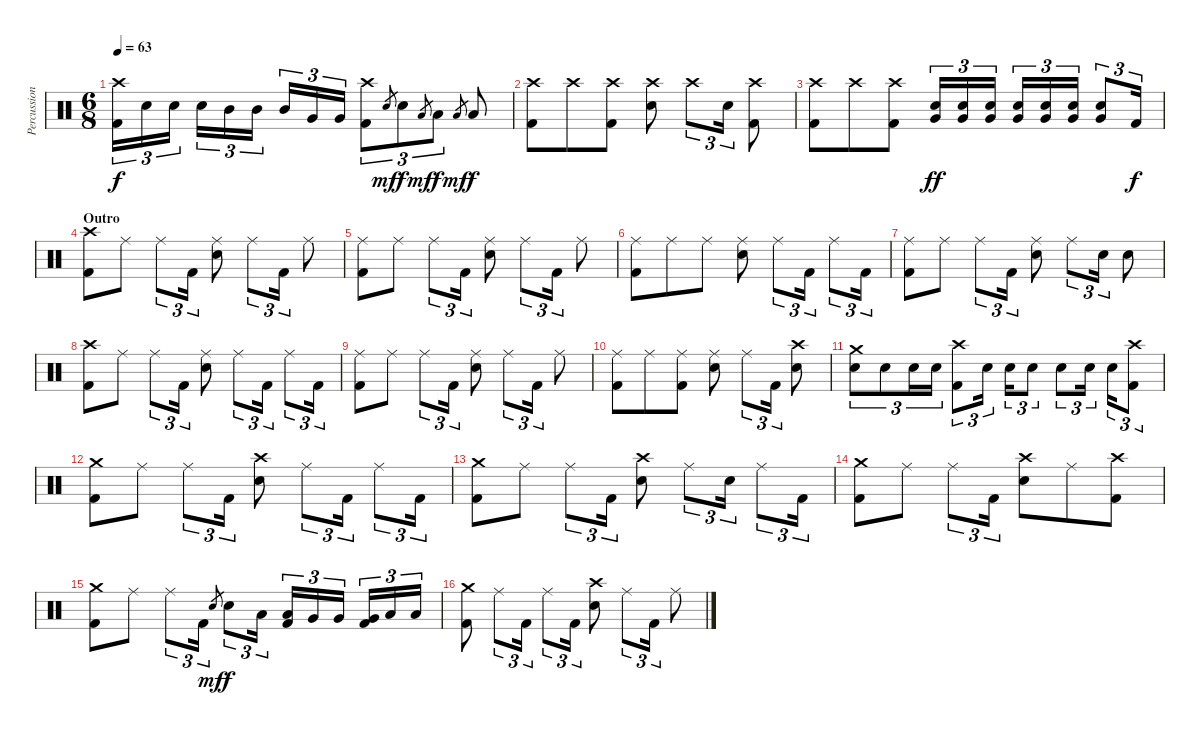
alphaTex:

\track ("Percussion" "Percussion") {instrument percussion}
\staff {score}
\articulation defaults
\ts (6 8)
\tempo 63
\clef neutral
\ks c
("Crash high (hit)" "Kick (hit) 2").16{tu (3 2) dy f} "Electric Snare (hit)".16{tu (3 2)} "Electric Snare (hit)".16{tu (3 2)} "Electric Snare (hit)".16{tu (3 2)} "Mid Tom (hit)".16{tu (3 2)} "Mid Tom (hit)".16{tu (3 2)} "Mid Tom (hit)".16{tu (3 2)} "Very Low Tom (hit)".16{tu (3 2)} "Very Low Tom (hit)".16{tu (3 2)} ("Crash high (hit)" "Kick (hit) 2").8{tu (3 2)} "Electric Snare (hit)".8{gr dy mf} "Electric Snare (hit)".8{tu (3 2) dy f} "Low Tom (hit)".8{gr dy mf} "Low Tom (hit)".8{tu (3 2) dy f} "Low Floor Tom (hit)".8{gr dy mf} "Low Floor Tom (hit)".8{dy f} |
("Crash high (hit)" "Kick (hit) 2").8 "Crash high (hit)".8 ("Crash high (hit)" "Kick (hit) 2").8 ("Crash high (hit)" "Electric Snare (hit)").8 "Crash high (hit)".8{tu (3 2)} "Electric Snare (hit)".16{tu (3 2)} ("Crash high (hit)" "Kick (hit) 2").8 |
("Crash high (hit)" "Kick (hit) 2").8 "Crash high (hit)".8 ("Crash high (hit)" "Kick (hit) 2").8 ("Electric Snare (hit)" "Very Low Tom (hit)").16{tu (3 2) dy ff} ("Electric Snare (hit)" "Very Low Tom (hit)").16{tu (3 2)} ("Electric Snare (hit)" "Very Low Tom (hit)").16{tu (3 2)} ("Electric Snare (hit)" "Very Low Tom (hit)").16{tu (3 2)} ("Electric Snare (hit)" "Very Low Tom (hit)").16{tu (3 2)} ("Electric Snare (hit)" "Very Low Tom (hit)").16{tu (3 2)} ("Electric Snare (hit)" "Very Low Tom (hit)").8{tu (3 2)} "Kick (hit) 2".16{tu (3 2) dy f} |
\section ("" "Outro")
("Crash high (hit)" "Kick (hit) 2").8 "Ride (middle)".8 "Ride (middle)".8{tu (3 2)} "Kick (hit) 2".16{tu (3 2)} ("Ride (middle)" "Electric Snare (hit)").8 "Ride (middle)".8{tu (3 2)} "Kick (hit) 2".16{tu (3 2)} "Ride (middle)".8 |
("Ride (middle)" "Kick (hit) 2").8 "Ride (middle)".8 "Ride (middle)".8{tu (3 2)} "Kick (hit) 2".16{tu (3 2)} ("Ride (middle)" "Electric Snare (hit)").8 "Ride (middle)".8{tu (3 2)} "Kick (hit) 2".16{tu (3 2)} "Ride (middle)".8 |
("Ride (middle)" "Kick (hit) 2").8 "Ride (middle)".8 "Ride (middle)".8 ("Ride (middle)" "Electric Snare (hit)").8 "Ride (middle)".8{tu (3 2)} "Kick (hit) 2".16{tu (3 2)} "Ride (middle)".8{tu (3 2)} "Kick (hit) 2".16{tu (3 2)} |
("Ride (middle)" "Kick (hit) 2").8 "Ride (middle)".8 "Ride (middle)".8{tu (3 2)} "Kick (hit) 2".16{tu (3 2)} ("Ride (middle)" "Electric Snare (hit)").8 "Ride (middle)".8{tu (3 2)} "Electric Snare (hit)".16{tu (3 2)} "Electric Snare (hit)".8 |
("Crash high (hit)" "Kick (hit) 2").8 "Ride (middle)".8 "Ride (middle)".8{tu (3 2)} "Kick (hit) 2".16{tu (3 2)} ("Ride (middle)" "Electric Snare (hit)").8 "Ride (middle)".8{tu (3 2)} "Kick (hit) 2".16{tu (3 2)} "Ride (middle)".8{tu (3 2)} "Kick (hit) 2".16{tu (3 2)} |
("Ride (middle)" "Kick (hit) 2").8 "Ride (middle)".8 "Ride (middle)".8{tu (3 2)} "Kick (hit) 2".16{tu (3 2)} ("Ride (middle)" "Electric Snare (hit)").8 "Ride (middle)".8{tu (3 2)} "Kick (hit) 2".16{tu (3 2)} "Ride (middle)".8 |
("Ride (middle)" "Kick (hit) 2").8 "Ride (middle)".8 ("Ride (middle)" "Kick (hit) 2").8 ("Ride (middle)" "Electric Snare (hit)").8 "Ride (middle)".8{tu (3 2)} "Kick (hit) 2".16{tu (3 2)} ("Crash high (hit)" "Electric Snare (hit)").8 |
("Crash medium (hit)" "Electric Snare (hit)").8{tu (3 2)} "Electric Snare (hit)".8{tu (3 2)} "Electric Snare (hit)".16{tu (3 2)} "Electric Snare (hit)".16{tu (3 2)} ("Crash high (hit)" "Kick (hit) 2").8{tu (3 2)} "Electric Snare (hit)".16{tu (3 2)} "Electric Snare (hit)".16{tu (3 2)} "Electric Snare (hit)".8{tu (3 2)} "Electric Snare (hit)".8{tu (3 2)} "Electric Snare (hit)".16{tu (3 2)} "Electric Snare (hit)".16{tu (3 2)} ("Crash high (hit)" "Kick (hit) 2").8{tu (3 2)} |
("Crash medium (hit)" "Kick (hit) 2").8 "Ride (middle)".8 "Ride (middle)".8{tu (3 2)} "Kick (hit) 2".16{tu (3 2)} ("Crash high (hit)" "Electric Snare (hit)").8 "Ride (middle)".8{tu (3 2)} "Kick (hit) 2".16{tu (3 2)} "Ride (middle)".8{tu (3 2)} "Kick (hit) 2".16{tu (3 2)} |
("Crash medium (hit)" "Kick (hit) 2").8 "Ride (middle)".8 "Ride (middle)".8{tu (3 2)} "Kick (hit) 2".16{tu (3 2)} ("Crash high (hit)" "Electric Snare (hit)").8 "Ride (middle)".8{tu (3 2)} "Electric Snare (hit)".16{tu (3 2)} "Ride (middle)".8{tu (3 2)} "Kick (hit) 2".16{tu (3 2)} |
("Crash medium (hit)" "Kick (hit) 2").8 "Ride (middle)".8 "Ride (middle)".8{tu (3 2)} "Kick (hit) 2".16{tu (3 2)} ("Crash high (hit)" "Electric Snare (hit)").8 "Ride (middle)".8 ("Crash high (hit)" "Kick (hit) 2").8 |
("Crash medium (hit)" "Kick (hit) 2").8 "Ride (middle)".8 "Ride (middle)".8{tu (3 2)} "Kick (hit) 2".16{tu (3 2)} "Electric Snare (hit)".8{gr dy mf} "Electric Snare (hit)".8{tu (3 2) dy f} "Low Tom (hit)".16{tu (3 2)} ("Low Tom (hit)" "Kick (hit) 2").16{tu (3 2)} "Very Low Tom (hit)".16{tu (3 2)} "Very Low Tom (hit)".16{tu (3 2)} ("Very Low Tom (hit)" "Kick (hit) 2").16{tu (3 2)} "Low Floor Tom (hit)".16{tu (3 2)} "Low Floor Tom (hit)".16{tu (3 2)} |
("Crash medium (hit)" "Kick (hit) 2").8 "Ride (middle)".8{tu (3 2)} "Kick (hit) 2".16{tu (3 2)} "Ride (middle)".8{tu (3 2)} "Kick (hit) 2".16{tu (3 2)} ("Crash high (hit)" "Electric Snare (hit)").8 "Ride (middle)".8{tu (3 2)} "Kick (hit) 2".16{tu (3 2)} "Ride (middle)".8
